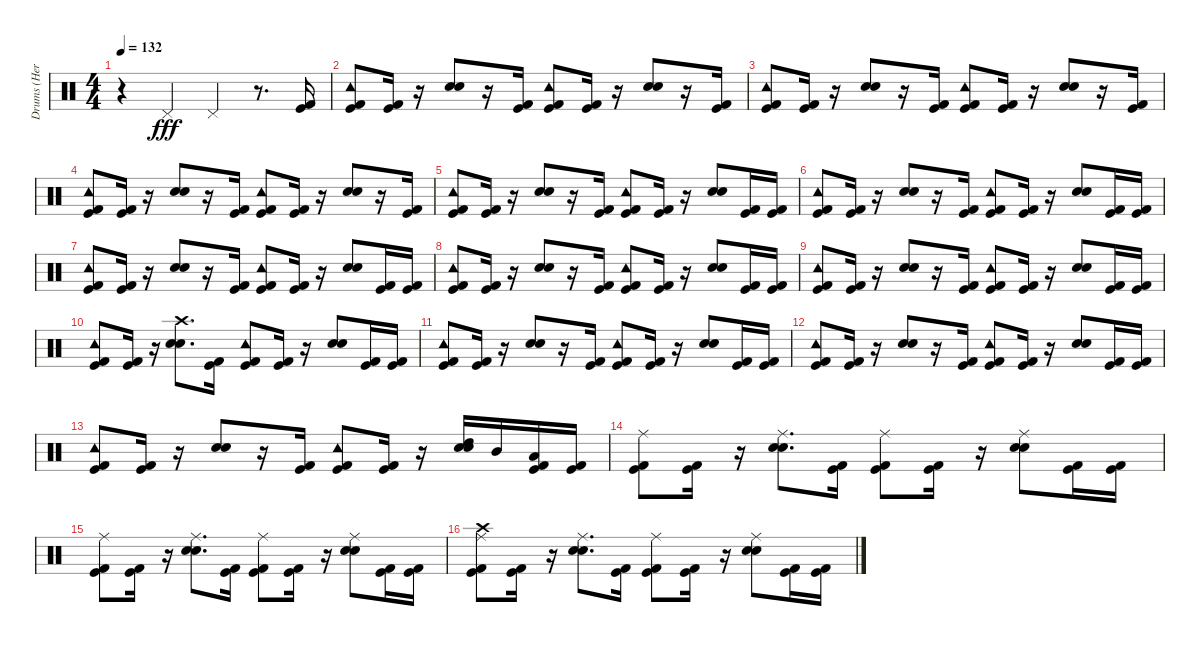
\track ("Drums (Herb Alexander)" "Drums (Her") {instrument percussion}
\staff {score}
\articulation defaults
\ts (4 4)
\tempo 132
\clef neutral
\ks c
r.4{dy fff} "Pedal Hi-Hat (hit)".4 "Pedal Hi-Hat (hit)".4 r.8{d} ("Kick (hit)" "Kick (hit) 2").16 |
("Tambourine (hit)" "Kick (hit)" "Kick (hit) 2").8 ("Kick (hit)" "Kick (hit) 2").16 r.16 ("Snare (hit) 2" "Hand Clap (hit)").8 r.16 ("Kick (hit)" "Kick (hit) 2").16 ("Tambourine (hit)" "Kick (hit)" "Kick (hit) 2").8 ("Kick (hit)" "Kick (hit) 2").16 r.16 ("Snare (hit) 2" "Hand Clap (hit)").8 r.16 ("Kick (hit)" "Kick (hit) 2").16 |
("Tambourine (hit)" "Kick (hit)" "Kick (hit) 2").8 ("Kick (hit)" "Kick (hit) 2").16 r.16 ("Snare (hit) 2" "Hand Clap (hit)").8 r.16 ("Kick (hit)" "Kick (hit) 2").16 ("Tambourine (hit)" "Kick (hit)" "Kick (hit) 2").8 ("Kick (hit)" "Kick (hit) 2").16 r.16 ("Snare (hit) 2" "Hand Clap (hit)").8 r.16 ("Kick (hit)" "Kick (hit) 2").16 |
("Tambourine (hit)" "Kick (hit)" "Kick (hit) 2").8 ("Kick (hit)" "Kick (hit) 2").16 r.16 ("Snare (hit) 2" "Hand Clap (hit)").8 r.16 ("Kick (hit)" "Kick (hit) 2").16 ("Kick (hit)" "Kick (hit) 2" "Tambourine (hit)").8 ("Kick (hit)" "Kick (hit) 2").16 r.16 ("Snare (hit) 2" "Hand Clap (hit)").8 r.16 ("Kick (hit)" "Kick (hit) 2").16 |
("Tambourine (hit)" "Kick (hit)" "Kick (hit) 2").8 ("Kick (hit)" "Kick (hit) 2").16 r.16 ("Snare (hit) 2" "Hand Clap (hit)").8 r.16 ("Kick (hit)" "Kick (hit) 2").16 ("Kick (hit)" "Kick (hit) 2" "Tambourine (hit)").8 ("Kick (hit)" "Kick (hit) 2").16 r.16 ("Snare (hit) 2" "Hand Clap (hit)").8 ("Kick (hit)" "Kick (hit) 2").16 ("Kick (hit)" "Kick (hit) 2").16 |
("Tambourine (hit)" "Kick (hit)" "Kick (hit) 2").8 ("Kick (hit)" "Kick (hit) 2").16 r.16 ("Snare (hit) 2" "Hand Clap (hit)").8 r.16 ("Kick (hit)" "Kick (hit) 2").16 ("Kick (hit)" "Kick (hit) 2" "Tambourine (hit)").8 ("Kick (hit)" "Kick (hit) 2").16 r.16 ("Snare (hit) 2" "Hand Clap (hit)").8 ("Kick (hit)" "Kick (hit) 2").16 ("Kick (hit)" "Kick (hit) 2").16 |
("Tambourine (hit)" "Kick (hit)" "Kick (hit) 2").8 ("Kick (hit)" "Kick (hit) 2").16 r.16 ("Snare (hit) 2" "Hand Clap (hit)").8 r.16 ("Kick (hit)" "Kick (hit) 2").16 ("Kick (hit)" "Kick (hit) 2" "Tambourine (hit)").8 ("Kick (hit)" "Kick (hit) 2").16 r.16 ("Snare (hit) 2" "Hand Clap (hit)").8 ("Kick (hit)" "Kick (hit) 2").16 ("Kick (hit)" "Kick (hit) 2").16 |
("Tambourine (hit)" "Kick (hit)" "Kick (hit) 2").8 ("Kick (hit)" "Kick (hit) 2").16 r.16 ("Snare (hit) 2" "Hand Clap (hit)").8 r.16 ("Kick (hit)" "Kick (hit) 2").16 ("Kick (hit)" "Kick (hit) 2" "Tambourine (hit)").8 ("Kick (hit)" "Kick (hit) 2").16 r.16 ("Snare (hit) 2" "Hand Clap (hit)").8 ("Kick (hit)" "Kick (hit) 2").16 ("Kick (hit)" "Kick (hit) 2").16 |
("Tambourine (hit)" "Kick (hit)" "Kick (hit) 2").8 ("Kick (hit)" "Kick (hit) 2").16 r.16 ("Snare (hit) 2" "Hand Clap (hit)").8 r.16 ("Kick (hit)" "Kick (hit) 2").16 ("Kick (hit)" "Kick (hit) 2" "Tambourine (hit)").8 ("Kick (hit)" "Kick (hit) 2").16 r.16 ("Snare (hit) 2" "Hand Clap (hit)").8 ("Kick (hit)" "Kick (hit) 2").16 ("Kick (hit)" "Kick (hit) 2").16 |
("Tambourine (hit)" "Kick (hit)" "Kick (hit) 2").8 ("Kick (hit)" "Kick (hit) 2").16 r.16 ("Snare (hit) 2" "Hand Clap (hit)" "Crash high (hit)").8{d} ("Kick (hit)" "Kick (hit) 2").16 ("Kick (hit)" "Kick (hit) 2" "Tambourine (hit)").8 ("Kick (hit)" "Kick (hit) 2").16 r.16 ("Snare (hit) 2" "Hand Clap (hit)").8 ("Kick (hit)" "Kick (hit) 2").16 ("Kick (hit)" "Kick (hit) 2").16 |
("Tambourine (hit)" "Kick (hit)" "Kick (hit) 2").8 ("Kick (hit)" "Kick (hit) 2").16 r.16 ("Snare (hit) 2" "Hand Clap (hit)").8 r.16 ("Kick (hit)" "Kick (hit) 2").16 ("Kick (hit)" "Kick (hit) 2" "Tambourine (hit)").8 ("Kick (hit)" "Kick (hit) 2").16 r.16 ("Snare (hit) 2" "Hand Clap (hit)").8 ("Kick (hit)" "Kick (hit) 2").16 ("Kick (hit)" "Kick (hit) 2").16 |
("Tambourine (hit)" "Kick (hit)" "Kick (hit) 2").8 ("Kick (hit)" "Kick (hit) 2").16 r.16 ("Snare (hit) 2" "Hand Clap (hit)").8 r.16 ("Kick (hit)" "Kick (hit) 2").16 ("Kick (hit)" "Kick (hit) 2" "Tambourine (hit)").8 ("Kick (hit)" "Kick (hit) 2").16 r.16 ("Snare (hit) 2" "Hand Clap (hit)").8 ("Kick (hit)" "Kick (hit) 2").16 ("Kick (hit)" "Kick (hit) 2").16 |
("Tambourine (hit)" "Kick (hit)" "Kick (hit) 2").8 ("Kick (hit)" "Kick (hit) 2").16 r.16 ("Snare (hit) 2" "Hand Clap (hit)").8 r.16 ("Kick (hit)" "Kick (hit) 2").16 ("Kick (hit)" "Kick (hit) 2" "Tambourine (hit)").8 ("Kick (hit)" "Kick (hit) 2").16 r.16 ("Snare (hit) 2" "Hand Clap (hit)" "High Tom (hit)").16 "Mid Tom (hit)".16 ("Kick (hit)" "Kick (hit) 2" "Low Tom (hit)").16 ("Kick (hit)" "Kick (hit) 2").16 |
("Ride (middle)" "Kick (hit)" "Kick (hit) 2").8 ("Kick (hit)" "Kick (hit) 2").16 r.16 ("Ride (middle)" "Snare (hit) 2" "Hand Clap (hit)").8{d} ("Kick (hit)" "Kick (hit) 2").16 ("Ride (middle)" "Kick (hit)" "Kick (hit) 2").8 ("Kick (hit)" "Kick (hit) 2").16 r.16 ("Ride (middle)" "Snare (hit) 2" "Hand Clap (hit)").8 ("Kick (hit)" "Kick (hit) 2").16 ("Kick (hit)" "Kick (hit) 2").16 |
("Kick (hit)" "Kick (hit) 2" "Ride (middle)").8 ("Kick (hit)" "Kick (hit) 2").16 r.16 ("Snare (hit) 2" "Hand Clap (hit)" "Ride (middle)").8{d} ("Kick (hit)" "Kick (hit) 2").16 ("Kick (hit)" "Kick (hit) 2" "Ride (middle)").8 ("Kick (hit)" "Kick (hit) 2").16 r.16 ("Snare (hit) 2" "Hand Clap (hit)" "Ride (middle)").8 ("Kick (hit)" "Kick (hit) 2").16 ("Kick (hit)" "Kick (hit) 2").16 |
("Crash high (hit)" "Kick (hit)" "Kick (hit) 2" "Ride (middle)").8 ("Kick (hit)" "Kick (hit) 2").16 r.16 ("Snare (hit) 2" "Hand Clap (hit)" "Ride (middle)").8{d} ("Kick (hit)" "Kick (hit) 2").16 ("Kick (hit)" "Kick (hit) 2" "Ride (middle)").8 ("Kick (hit)" "Kick (hit) 2").16 r.16 ("Snare (hit) 2" "Hand Clap (hit)" "Ride (middle)").8 ("Kick (hit)" "Kick (hit) 2").16 ("Kick (hit)" "Kick (hit) 2").16
